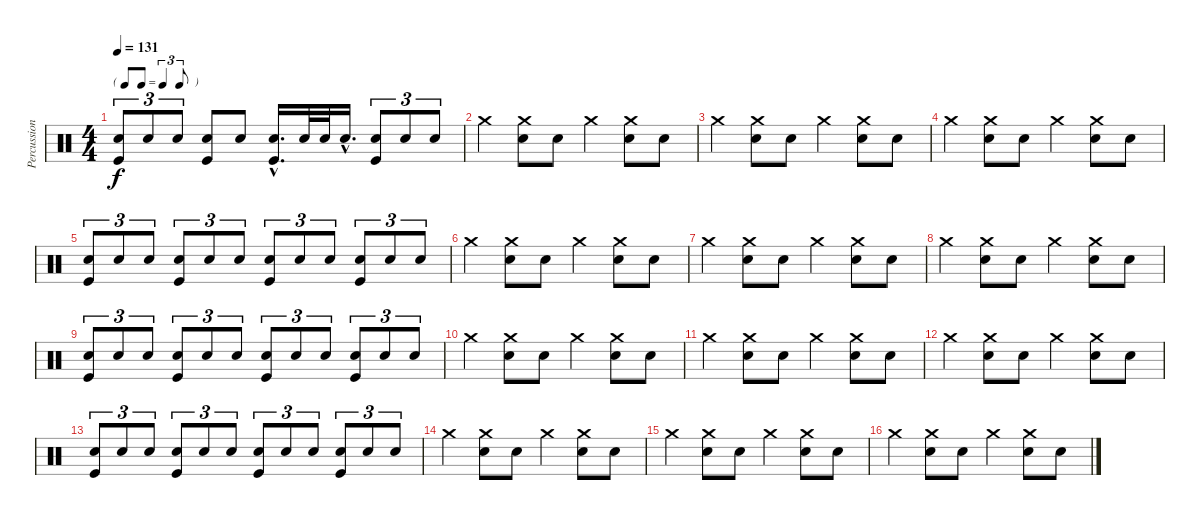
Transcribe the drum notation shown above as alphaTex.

\track ("Percussion" "Percussion") {instrument percussion}
\staff {score}
\articulation defaults
\ts (4 4)
\tf triplet8th
\tempo 131
\clef neutral
\ks c
("Snare (hit) 2" "Kick (hit)").8{tu (3 2) dy f} "Snare (hit) 2".8{tu (3 2)} "Snare (hit) 2".8{tu (3 2)} ("Snare (hit) 2" "Kick (hit)").8 "Snare (hit) 2".8 ("Snare (hit) 2"{hac} "Kick (hit)"{hac}).16{d} "Snare (hit) 2".32 "Snare (hit) 2".32 "Snare (hit) 2"{hac}.16{d} ("Snare (hit) 2" "Kick (hit)").8{tu (3 2)} "Snare (hit) 2".8{tu (3 2)} "Snare (hit) 2".8{tu (3 2)} |
"Crash medium (hit)".4 ("Crash medium (hit)" "Snare (hit) 2").8 "Snare (hit) 2".8 "Crash medium (hit)".4 ("Crash medium (hit)" "Snare (hit) 2").8 "Snare (hit) 2".8 |
"Crash medium (hit)".4 ("Crash medium (hit)" "Snare (hit) 2").8 "Snare (hit) 2".8 "Crash medium (hit)".4 ("Crash medium (hit)" "Snare (hit) 2").8 "Snare (hit) 2".8 |
"Crash medium (hit)".4 ("Crash medium (hit)" "Snare (hit) 2").8 "Snare (hit) 2".8 "Crash medium (hit)".4 ("Crash medium (hit)" "Snare (hit) 2").8 "Snare (hit) 2".8 |
("Snare (hit) 2" "Kick (hit)").8{tu (3 2)} "Snare (hit) 2".8{tu (3 2)} "Snare (hit) 2".8{tu (3 2)} ("Snare (hit) 2" "Kick (hit)").8{tu (3 2)} "Snare (hit) 2".8{tu (3 2)} "Snare (hit) 2".8{tu (3 2)} ("Snare (hit) 2" "Kick (hit)").8{tu (3 2)} "Snare (hit) 2".8{tu (3 2)} "Snare (hit) 2".8{tu (3 2)} ("Snare (hit) 2" "Kick (hit)").8{tu (3 2)} "Snare (hit) 2".8{tu (3 2)} "Snare (hit) 2".8{tu (3 2)} |
"Crash medium (hit)".4 ("Crash medium (hit)" "Snare (hit) 2").8 "Snare (hit) 2".8 "Crash medium (hit)".4 ("Crash medium (hit)" "Snare (hit) 2").8 "Snare (hit) 2".8 |
"Crash medium (hit)".4 ("Crash medium (hit)" "Snare (hit) 2").8 "Snare (hit) 2".8 "Crash medium (hit)".4 ("Crash medium (hit)" "Snare (hit) 2").8 "Snare (hit) 2".8 |
"Crash medium (hit)".4 ("Crash medium (hit)" "Snare (hit) 2").8 "Snare (hit) 2".8 "Crash medium (hit)".4 ("Crash medium (hit)" "Snare (hit) 2").8 "Snare (hit) 2".8 |
("Snare (hit) 2" "Kick (hit)").8{tu (3 2)} "Snare (hit) 2".8{tu (3 2)} "Snare (hit) 2".8{tu (3 2)} ("Snare (hit) 2" "Kick (hit)").8{tu (3 2)} "Snare (hit) 2".8{tu (3 2)} "Snare (hit) 2".8{tu (3 2)} ("Snare (hit) 2" "Kick (hit)").8{tu (3 2)} "Snare (hit) 2".8{tu (3 2)} "Snare (hit) 2".8{tu (3 2)} ("Snare (hit) 2" "Kick (hit)").8{tu (3 2)} "Snare (hit) 2".8{tu (3 2)} "Snare (hit) 2".8{tu (3 2)} |
"Crash medium (hit)".4 ("Crash medium (hit)" "Snare (hit) 2").8 "Snare (hit) 2".8 "Crash medium (hit)".4 ("Crash medium (hit)" "Snare (hit) 2").8 "Snare (hit) 2".8 |
"Crash medium (hit)".4 ("Crash medium (hit)" "Snare (hit) 2").8 "Snare (hit) 2".8 "Crash medium (hit)".4 ("Crash medium (hit)" "Snare (hit) 2").8 "Snare (hit) 2".8 |
"Crash medium (hit)".4 ("Crash medium (hit)" "Snare (hit) 2").8 "Snare (hit) 2".8 "Crash medium (hit)".4 ("Crash medium (hit)" "Snare (hit) 2").8 "Snare (hit) 2".8 |
("Snare (hit) 2" "Kick (hit)").8{tu (3 2)} "Snare (hit) 2".8{tu (3 2)} "Snare (hit) 2".8{tu (3 2)} ("Snare (hit) 2" "Kick (hit)").8{tu (3 2)} "Snare (hit) 2".8{tu (3 2)} "Snare (hit) 2".8{tu (3 2)} ("Snare (hit) 2" "Kick (hit)").8{tu (3 2)} "Snare (hit) 2".8{tu (3 2)} "Snare (hit) 2".8{tu (3 2)} ("Snare (hit) 2" "Kick (hit)").8{tu (3 2)} "Snare (hit) 2".8{tu (3 2)} "Snare (hit) 2".8{tu (3 2)} |
"Crash medium (hit)".4 ("Crash medium (hit)" "Snare (hit) 2").8 "Snare (hit) 2".8 "Crash medium (hit)".4 ("Crash medium (hit)" "Snare (hit) 2").8 "Snare (hit) 2".8 |
"Crash medium (hit)".4 ("Crash medium (hit)" "Snare (hit) 2").8 "Snare (hit) 2".8 "Crash medium (hit)".4 ("Crash medium (hit)" "Snare (hit) 2").8 "Snare (hit) 2".8 |
"Crash medium (hit)".4 ("Crash medium (hit)" "Snare (hit) 2").8 "Snare (hit) 2".8 "Crash medium (hit)".4 ("Crash medium (hit)" "Snare (hit) 2").8 "Snare (hit) 2".8
